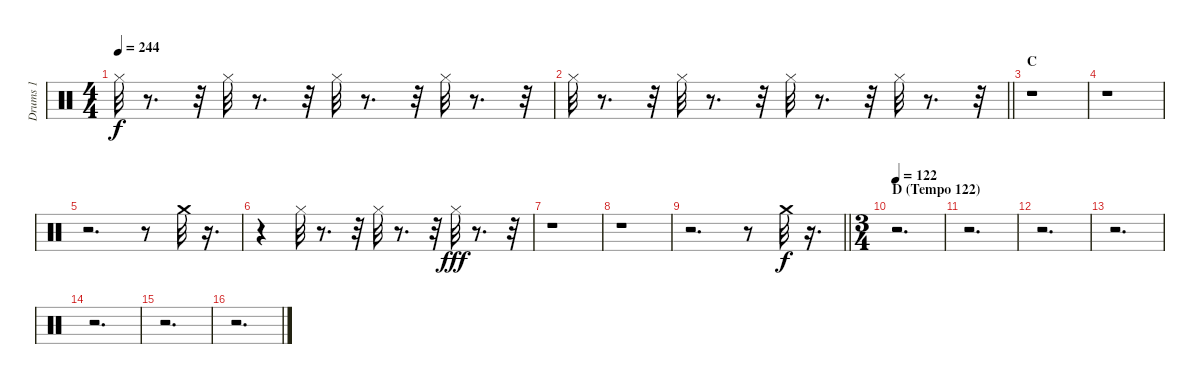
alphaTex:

\track ("Drums 1" "Drums 1") {instrument percussion}
\staff {score}
\articulation defaults
\ts (4 4)
\tempo 244
\clef neutral
\ks c "Hi-Hat (closed)".32{dy f}
r.8{d} r.32 "Hi-Hat (closed)".32 r.8{d} r.32 "Hi-Hat (closed)".32 r.8{d} r.32 "Hi-Hat (closed)".32 r.8{d} r.32 |
\barLineRight lightlight "Hi-Hat (closed)".32
r.8{d} r.32 "Hi-Hat (closed)".32 r.8{d} r.32 "Hi-Hat (closed)".32 r.8{d} r.32 "Hi-Hat (closed)".32 r.8{d} r.32 |
\section ("" "C")
r.1 |
r.1 |
r.2{d} r.8 "Crash medium (hit)".32 r.16{d} |
r.4 "Hi-Hat (closed)".32 r.8{d} r.32 "Hi-Hat (closed)".32 r.8{d} r.32 "Hi-Hat (closed)".32{dy fff} r.8{d} r.32 |
r.1 |
r.1 |
\barLineRight lightlight
r.2{d} r.8 "Crash medium (hit)".32{dy f} r.16{d} |
\ts (3 4)
\section ("" "D (Tempo 122)")
\tempo 122
r.2{d} |
r.2{d} |
r.2{d} |
r.2{d} |
r.2{d} |
r.2{d} |
r.2{d}
